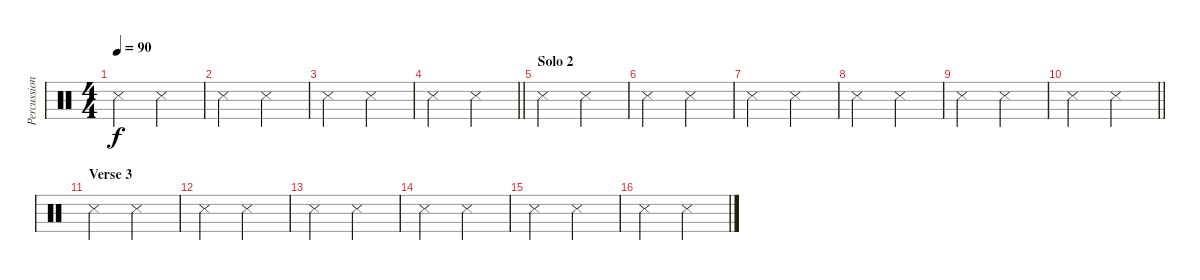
\track ("Percussion" "Percussion") {instrument percussion}
\staff {score}
\articulation defaults
\ts (4 4)
\tempo 90
\clef neutral
\ks c "Snare (side stick) 3".2{dy f} "Snare (side stick) 3".2
|
"Snare (side stick) 3".2 "Snare (side stick) 3".2 |
"Snare (side stick) 3".2 "Snare (side stick) 3".2 |
\barLineRight lightlight "Snare (side stick) 3".2 "Snare (side stick) 3".2
|
\section ("" "Solo 2")
"Snare (side stick) 3".2 "Snare (side stick) 3".2 |
"Snare (side stick) 3".2 "Snare (side stick) 3".2 |
"Snare (side stick) 3".2 "Snare (side stick) 3".2 |
"Snare (side stick) 3".2 "Snare (side stick) 3".2 |
"Snare (side stick) 3".2 "Snare (side stick) 3".2 |
\barLineRight lightlight "Snare (side stick) 3".2 "Snare (side stick) 3".2
|
\section ("" "Verse 3")
"Snare (side stick) 3".2 "Snare (side stick) 3".2 |
"Snare (side stick) 3".2 "Snare (side stick) 3".2 |
"Snare (side stick) 3".2 "Snare (side stick) 3".2 |
"Snare (side stick) 3".2 "Snare (side stick) 3".2 |
"Snare (side stick) 3".2 "Snare (side stick) 3".2 |
"Snare (side stick) 3".2 "Snare (side stick) 3".2
